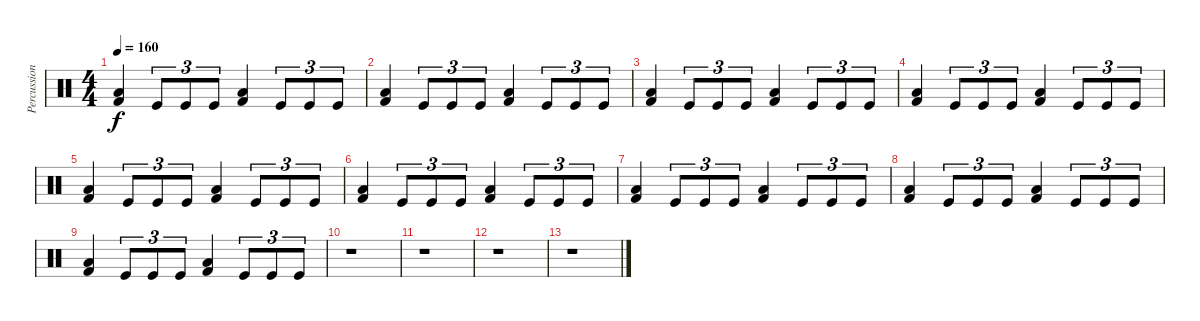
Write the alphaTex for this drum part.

\track ("Percussions" "Percussion") {instrument percussion}
\staff {score}
\articulation defaults
\ts (4 4)
\tempo 160
\clef neutral
\ks c
("Kick (hit) 2" "Low Floor Tom (hit)").4{dy f} "Kick (hit)".8{tu (3 2)} "Kick (hit)".8{tu (3 2)} "Kick (hit)".8{tu (3 2)} ("Kick (hit) 2" "Low Floor Tom (hit)").4 "Kick (hit)".8{tu (3 2)} "Kick (hit)".8{tu (3 2)} "Kick (hit)".8{tu (3 2)} |
("Kick (hit) 2" "Low Floor Tom (hit)").4 "Kick (hit)".8{tu (3 2)} "Kick (hit)".8{tu (3 2)} "Kick (hit)".8{tu (3 2)} ("Kick (hit) 2" "Low Floor Tom (hit)").4 "Kick (hit)".8{tu (3 2)} "Kick (hit)".8{tu (3 2)} "Kick (hit)".8{tu (3 2)} |
("Kick (hit) 2" "Low Floor Tom (hit)").4 "Kick (hit)".8{tu (3 2)} "Kick (hit)".8{tu (3 2)} "Kick (hit)".8{tu (3 2)} ("Kick (hit) 2" "Low Floor Tom (hit)").4 "Kick (hit)".8{tu (3 2)} "Kick (hit)".8{tu (3 2)} "Kick (hit)".8{tu (3 2)} |
("Kick (hit) 2" "Low Floor Tom (hit)").4 "Kick (hit)".8{tu (3 2)} "Kick (hit)".8{tu (3 2)} "Kick (hit)".8{tu (3 2)} ("Kick (hit) 2" "Low Floor Tom (hit)").4 "Kick (hit)".8{tu (3 2)} "Kick (hit)".8{tu (3 2)} "Kick (hit)".8{tu (3 2)} |
("Kick (hit) 2" "Low Floor Tom (hit)").4 "Kick (hit)".8{tu (3 2)} "Kick (hit)".8{tu (3 2)} "Kick (hit)".8{tu (3 2)} ("Kick (hit) 2" "Low Floor Tom (hit)").4 "Kick (hit)".8{tu (3 2)} "Kick (hit)".8{tu (3 2)} "Kick (hit)".8{tu (3 2)} |
("Kick (hit) 2" "Low Floor Tom (hit)").4 "Kick (hit)".8{tu (3 2)} "Kick (hit)".8{tu (3 2)} "Kick (hit)".8{tu (3 2)} ("Kick (hit) 2" "Low Floor Tom (hit)").4 "Kick (hit)".8{tu (3 2)} "Kick (hit)".8{tu (3 2)} "Kick (hit)".8{tu (3 2)} |
("Kick (hit) 2" "Low Floor Tom (hit)").4 "Kick (hit)".8{tu (3 2)} "Kick (hit)".8{tu (3 2)} "Kick (hit)".8{tu (3 2)} ("Kick (hit) 2" "Low Floor Tom (hit)").4 "Kick (hit)".8{tu (3 2)} "Kick (hit)".8{tu (3 2)} "Kick (hit)".8{tu (3 2)} |
("Kick (hit) 2" "Low Floor Tom (hit)").4 "Kick (hit)".8{tu (3 2)} "Kick (hit)".8{tu (3 2)} "Kick (hit)".8{tu (3 2)} ("Kick (hit) 2" "Low Floor Tom (hit)").4 "Kick (hit)".8{tu (3 2)} "Kick (hit)".8{tu (3 2)} "Kick (hit)".8{tu (3 2)} |
("Kick (hit) 2" "Low Floor Tom (hit)").4 "Kick (hit)".8{tu (3 2)} "Kick (hit)".8{tu (3 2)} "Kick (hit)".8{tu (3 2)} ("Kick (hit) 2" "Low Floor Tom (hit)").4 "Kick (hit)".8{tu (3 2)} "Kick (hit)".8{tu (3 2)} "Kick (hit)".8{tu (3 2)} |
r.1 |
r.1 |
r.1 |
r.1
